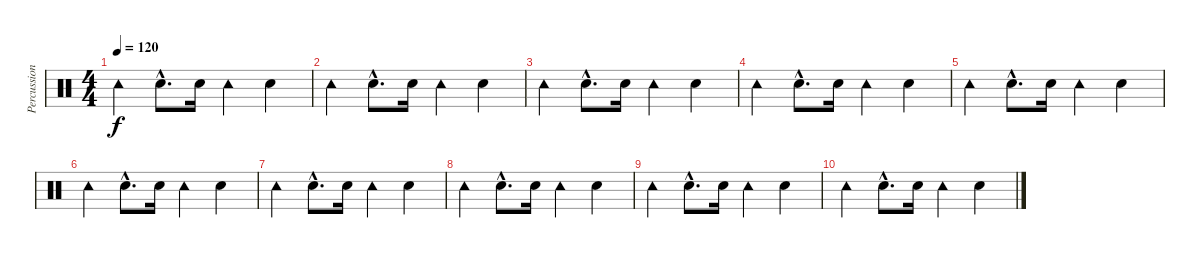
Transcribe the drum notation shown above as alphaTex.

\track ("Percussions" "Percussion") {instrument percussion}
\staff {score}
\articulation defaults
\ts (4 4)
\tempo 120
\clef neutral
\ks c "Tambourine (hit)".4{dy f} "Electric Snare (hit)"{hac}.8{d} "Electric Snare (hit)".16 "Tambourine (hit)".4 "Electric Snare (hit)".4
|
"Tambourine (hit)".4 "Electric Snare (hit)"{hac}.8{d} "Electric Snare (hit)".16 "Tambourine (hit)".4 "Electric Snare (hit)".4 |
"Tambourine (hit)".4 "Electric Snare (hit)"{hac}.8{d} "Electric Snare (hit)".16 "Tambourine (hit)".4 "Electric Snare (hit)".4 |
"Tambourine (hit)".4 "Electric Snare (hit)"{hac}.8{d} "Electric Snare (hit)".16 "Tambourine (hit)".4 "Electric Snare (hit)".4 |
"Tambourine (hit)".4 "Electric Snare (hit)"{hac}.8{d} "Electric Snare (hit)".16 "Tambourine (hit)".4 "Electric Snare (hit)".4 |
"Tambourine (hit)".4 "Electric Snare (hit)"{hac}.8{d} "Electric Snare (hit)".16 "Tambourine (hit)".4 "Electric Snare (hit)".4 |
"Tambourine (hit)".4 "Electric Snare (hit)"{hac}.8{d} "Electric Snare (hit)".16 "Tambourine (hit)".4 "Electric Snare (hit)".4 |
"Tambourine (hit)".4 "Electric Snare (hit)"{hac}.8{d} "Electric Snare (hit)".16 "Tambourine (hit)".4 "Electric Snare (hit)".4 |
"Tambourine (hit)".4 "Electric Snare (hit)"{hac}.8{d} "Electric Snare (hit)".16 "Tambourine (hit)".4 "Electric Snare (hit)".4 |
"Tambourine (hit)".4 "Electric Snare (hit)"{hac}.8{d} "Electric Snare (hit)".16 "Tambourine (hit)".4 "Electric Snare (hit)".4
